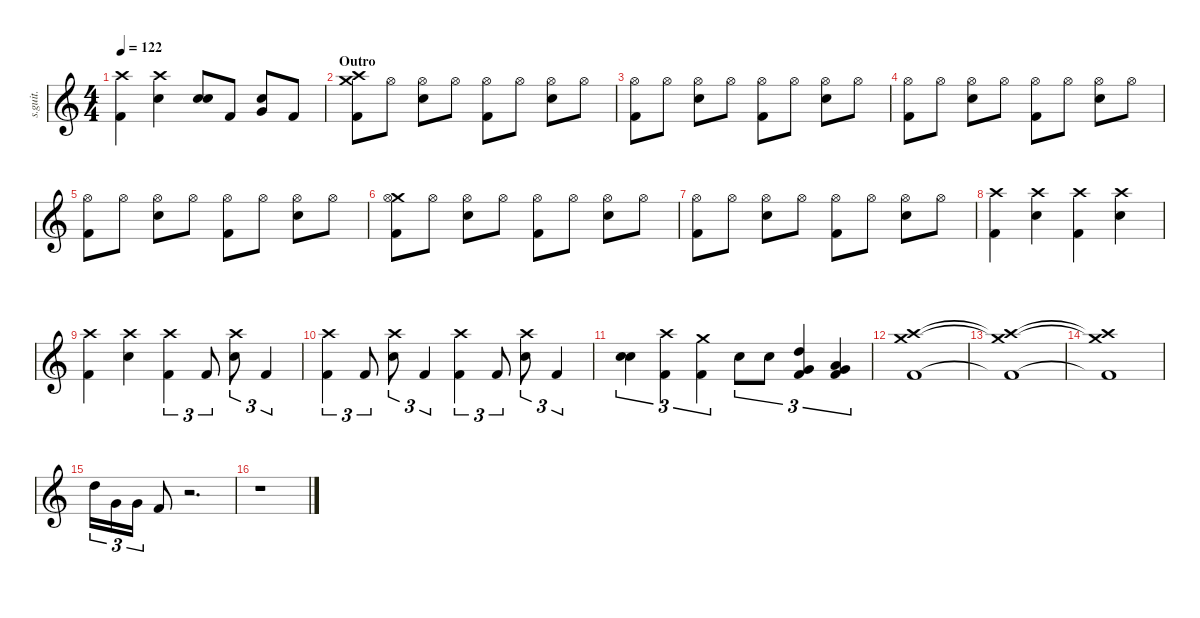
\defaultSystemsLayout 4
\hideDynamics
\bracketExtendMode nobrackets
\track ("Neil Sanderson" "s.guit.") {instrument percussion}
\staff {score}
\articulation defaults
\ts (4 4)
\tempo 122
\clef g2
\ks c
("Crash high (hit)" "Kick (hit) 2").4{lyrics (0 "") lyrics (1 "") lyrics (2 "") lyrics (3 "") lyrics (4 "") dy f} ("Crash high (hit)" "Snare (hit) 2").4{lyrics (0 "") lyrics (1 "") lyrics (2 "") lyrics (3 "") lyrics (4 "")} ("Snare (hit) 2" "Snare (hit) 2").8{bd 30 lyrics (0 "") lyrics (1 "") lyrics (2 "") lyrics (3 "") lyrics (4 "")} "Kick (hit) 2".8{lyrics (0 "") lyrics (1 "") lyrics (2 "") lyrics (3 "") lyrics (4 "")} ("Snare (hit) 2" "Very Low Tom (hit)").8{bd 30 lyrics (0 "") lyrics (1 "") lyrics (2 "") lyrics (3 "") lyrics (4 "")} "Kick (hit) 2".8{lyrics (0 "") lyrics (1 "") lyrics (2 "") lyrics (3 "") lyrics (4 "")} |
\section ("" "Outro")
("Crash high (hit)" "Crash medium (hit)" "Kick (hit) 2").8{lyrics (0 "") lyrics (1 "") lyrics (2 "") lyrics (3 "") lyrics (4 "")} "Hi-Hat (open)".8{lyrics (0 "") lyrics (1 "") lyrics (2 "") lyrics (3 "") lyrics (4 "")} ("Hi-Hat (open)" "Snare (hit) 2").8{lyrics (0 "") lyrics (1 "") lyrics (2 "") lyrics (3 "") lyrics (4 "")} "Hi-Hat (open)".8{lyrics (0 "") lyrics (1 "") lyrics (2 "") lyrics (3 "") lyrics (4 "")} ("Hi-Hat (open)" "Kick (hit) 2").8{lyrics (0 "") lyrics (1 "") lyrics (2 "") lyrics (3 "") lyrics (4 "")} "Hi-Hat (open)".8{lyrics (0 "") lyrics (1 "") lyrics (2 "") lyrics (3 "") lyrics (4 "")} ("Hi-Hat (open)" "Snare (hit) 2").8{lyrics (0 "") lyrics (1 "") lyrics (2 "") lyrics (3 "") lyrics (4 "")} "Hi-Hat (open)".8{lyrics (0 "") lyrics (1 "") lyrics (2 "") lyrics (3 "") lyrics (4 "")} |
("Hi-Hat (open)" "Kick (hit) 2").8{lyrics (0 "") lyrics (1 "") lyrics (2 "") lyrics (3 "") lyrics (4 "")} "Hi-Hat (open)".8{lyrics (0 "") lyrics (1 "") lyrics (2 "") lyrics (3 "") lyrics (4 "")} ("Hi-Hat (open)" "Snare (hit) 2").8{lyrics (0 "") lyrics (1 "") lyrics (2 "") lyrics (3 "") lyrics (4 "")} "Hi-Hat (open)".8{lyrics (0 "") lyrics (1 "") lyrics (2 "") lyrics (3 "") lyrics (4 "")} ("Hi-Hat (open)" "Kick (hit) 2").8{lyrics (0 "") lyrics (1 "") lyrics (2 "") lyrics (3 "") lyrics (4 "")} "Hi-Hat (open)".8{lyrics (0 "") lyrics (1 "") lyrics (2 "") lyrics (3 "") lyrics (4 "")} ("Hi-Hat (open)" "Snare (hit) 2").8{lyrics (0 "") lyrics (1 "") lyrics (2 "") lyrics (3 "") lyrics (4 "")} "Hi-Hat (open)".8{lyrics (0 "") lyrics (1 "") lyrics (2 "") lyrics (3 "") lyrics (4 "")} |
("Hi-Hat (open)" "Kick (hit) 2").8{lyrics (0 "") lyrics (1 "") lyrics (2 "") lyrics (3 "") lyrics (4 "")} "Hi-Hat (open)".8{lyrics (0 "") lyrics (1 "") lyrics (2 "") lyrics (3 "") lyrics (4 "")} ("Hi-Hat (open)" "Snare (hit) 2").8{lyrics (0 "") lyrics (1 "") lyrics (2 "") lyrics (3 "") lyrics (4 "")} "Hi-Hat (open)".8{lyrics (0 "") lyrics (1 "") lyrics (2 "") lyrics (3 "") lyrics (4 "")} ("Hi-Hat (open)" "Kick (hit) 2").8{lyrics (0 "") lyrics (1 "") lyrics (2 "") lyrics (3 "") lyrics (4 "")} "Hi-Hat (open)".8{lyrics (0 "") lyrics (1 "") lyrics (2 "") lyrics (3 "") lyrics (4 "")} ("Hi-Hat (open)" "Snare (hit) 2").8{lyrics (0 "") lyrics (1 "") lyrics (2 "") lyrics (3 "") lyrics (4 "")} "Hi-Hat (open)".8{lyrics (0 "") lyrics (1 "") lyrics (2 "") lyrics (3 "") lyrics (4 "")} |
("Hi-Hat (open)" "Kick (hit) 2").8{lyrics (0 "") lyrics (1 "") lyrics (2 "") lyrics (3 "") lyrics (4 "")} "Hi-Hat (open)".8{lyrics (0 "") lyrics (1 "") lyrics (2 "") lyrics (3 "") lyrics (4 "")} ("Hi-Hat (open)" "Snare (hit) 2").8{lyrics (0 "") lyrics (1 "") lyrics (2 "") lyrics (3 "") lyrics (4 "")} "Hi-Hat (open)".8{lyrics (0 "") lyrics (1 "") lyrics (2 "") lyrics (3 "") lyrics (4 "")} ("Hi-Hat (open)" "Kick (hit) 2").8{lyrics (0 "") lyrics (1 "") lyrics (2 "") lyrics (3 "") lyrics (4 "")} "Hi-Hat (open)".8{lyrics (0 "") lyrics (1 "") lyrics (2 "") lyrics (3 "") lyrics (4 "")} ("Hi-Hat (open)" "Snare (hit) 2").8{lyrics (0 "") lyrics (1 "") lyrics (2 "") lyrics (3 "") lyrics (4 "")} "Hi-Hat (open)".8{lyrics (0 "") lyrics (1 "") lyrics (2 "") lyrics (3 "") lyrics (4 "")} |
("Crash medium (hit)" "Hi-Hat (open)" "Kick (hit) 2").8{lyrics (0 "") lyrics (1 "") lyrics (2 "") lyrics (3 "") lyrics (4 "")} "Hi-Hat (open)".8{lyrics (0 "") lyrics (1 "") lyrics (2 "") lyrics (3 "") lyrics (4 "")} ("Hi-Hat (open)" "Snare (hit) 2").8{lyrics (0 "") lyrics (1 "") lyrics (2 "") lyrics (3 "") lyrics (4 "")} "Hi-Hat (open)".8{lyrics (0 "") lyrics (1 "") lyrics (2 "") lyrics (3 "") lyrics (4 "")} ("Hi-Hat (open)" "Kick (hit) 2").8{lyrics (0 "") lyrics (1 "") lyrics (2 "") lyrics (3 "") lyrics (4 "")} "Hi-Hat (open)".8{lyrics (0 "") lyrics (1 "") lyrics (2 "") lyrics (3 "") lyrics (4 "")} ("Hi-Hat (open)" "Snare (hit) 2").8{lyrics (0 "") lyrics (1 "") lyrics (2 "") lyrics (3 "") lyrics (4 "")} "Hi-Hat (open)".8{lyrics (0 "") lyrics (1 "") lyrics (2 "") lyrics (3 "") lyrics (4 "")} |
("Hi-Hat (open)" "Kick (hit) 2").8{lyrics (0 "") lyrics (1 "") lyrics (2 "") lyrics (3 "") lyrics (4 "")} "Hi-Hat (open)".8{lyrics (0 "") lyrics (1 "") lyrics (2 "") lyrics (3 "") lyrics (4 "")} ("Hi-Hat (open)" "Snare (hit) 2").8{lyrics (0 "") lyrics (1 "") lyrics (2 "") lyrics (3 "") lyrics (4 "")} "Hi-Hat (open)".8{lyrics (0 "") lyrics (1 "") lyrics (2 "") lyrics (3 "") lyrics (4 "")} ("Hi-Hat (open)" "Kick (hit) 2").8{lyrics (0 "") lyrics (1 "") lyrics (2 "") lyrics (3 "") lyrics (4 "")} "Hi-Hat (open)".8{lyrics (0 "") lyrics (1 "") lyrics (2 "") lyrics (3 "") lyrics (4 "")} ("Hi-Hat (open)" "Snare (hit) 2").8{lyrics (0 "") lyrics (1 "") lyrics (2 "") lyrics (3 "") lyrics (4 "")} "Hi-Hat (open)".8{lyrics (0 "") lyrics (1 "") lyrics (2 "") lyrics (3 "") lyrics (4 "")} |
("Crash high (hit)" "Kick (hit) 2").4{lyrics (0 "") lyrics (1 "") lyrics (2 "") lyrics (3 "") lyrics (4 "")} ("Crash high (hit)" "Snare (hit) 2").4{lyrics (0 "") lyrics (1 "") lyrics (2 "") lyrics (3 "") lyrics (4 "")} ("Crash high (hit)" "Kick (hit) 2").4{lyrics (0 "") lyrics (1 "") lyrics (2 "") lyrics (3 "") lyrics (4 "")} ("Crash high (hit)" "Snare (hit) 2").4{lyrics (0 "") lyrics (1 "") lyrics (2 "") lyrics (3 "") lyrics (4 "")} |
("Crash high (hit)" "Kick (hit) 2").4{lyrics (0 "") lyrics (1 "") lyrics (2 "") lyrics (3 "") lyrics (4 "")} ("Crash high (hit)" "Snare (hit) 2").4{lyrics (0 "") lyrics (1 "") lyrics (2 "") lyrics (3 "") lyrics (4 "")} ("Crash high (hit)" "Kick (hit) 2").4{tu (3 2) lyrics (0 "") lyrics (1 "") lyrics (2 "") lyrics (3 "") lyrics (4 "")} "Kick (hit) 2".8{tu (3 2) lyrics (0 "") lyrics (1 "") lyrics (2 "") lyrics (3 "") lyrics (4 "")} ("Crash high (hit)" "Snare (hit) 2").8{tu (3 2) lyrics (0 "") lyrics (1 "") lyrics (2 "") lyrics (3 "") lyrics (4 "")} "Kick (hit) 2".4{tu (3 2) lyrics (0 "") lyrics (1 "") lyrics (2 "") lyrics (3 "") lyrics (4 "")} |
("Crash high (hit)" "Kick (hit) 2").4{tu (3 2) lyrics (0 "") lyrics (1 "") lyrics (2 "") lyrics (3 "") lyrics (4 "")} "Kick (hit) 2".8{tu (3 2) lyrics (0 "") lyrics (1 "") lyrics (2 "") lyrics (3 "") lyrics (4 "")} ("Crash high (hit)" "Snare (hit) 2").8{tu (3 2) lyrics (0 "") lyrics (1 "") lyrics (2 "") lyrics (3 "") lyrics (4 "")} "Kick (hit) 2".4{tu (3 2) lyrics (0 "") lyrics (1 "") lyrics (2 "") lyrics (3 "") lyrics (4 "")} ("Crash high (hit)" "Kick (hit) 2").4{tu (3 2) lyrics (0 "") lyrics (1 "") lyrics (2 "") lyrics (3 "") lyrics (4 "")} "Kick (hit) 2".8{tu (3 2) lyrics (0 "") lyrics (1 "") lyrics (2 "") lyrics (3 "") lyrics (4 "")} ("Crash high (hit)" "Snare (hit) 2").8{tu (3 2) lyrics (0 "") lyrics (1 "") lyrics (2 "") lyrics (3 "") lyrics (4 "")} "Kick (hit) 2".4{tu (3 2) lyrics (0 "") lyrics (1 "") lyrics (2 "") lyrics (3 "") lyrics (4 "")} |
("Snare (hit) 2" "Snare (hit) 2").4{tu (3 2) bd 30 lyrics (0 "") lyrics (1 "") lyrics (2 "") lyrics (3 "") lyrics (4 "")} ("Crash high (hit)" "Kick (hit) 2").4{tu (3 2) lyrics (0 "") lyrics (1 "") lyrics (2 "") lyrics (3 "") lyrics (4 "")} ("Crash medium (hit)" "Kick (hit) 2").4{tu (3 2) lyrics (0 "") lyrics (1 "") lyrics (2 "") lyrics (3 "") lyrics (4 "")} "Snare (hit) 2".8{tu (3 2) lyrics (0 "") lyrics (1 "") lyrics (2 "") lyrics (3 "") lyrics (4 "")} "Snare (hit) 2".8{tu (3 2) lyrics (0 "") lyrics (1 "") lyrics (2 "") lyrics (3 "") lyrics (4 "")} ("High Tom (hit)" "Very Low Tom (hit)" "Kick (hit) 2").4{tu (3 2) bd 30 lyrics (0 "") lyrics (1 "") lyrics (2 "") lyrics (3 "") lyrics (4 "")} ("Very Low Tom (hit)" "Low Floor Tom (hit)" "Kick (hit) 2").4{tu (3 2) bd 30 lyrics (0 "") lyrics (1 "") lyrics (2 "") lyrics (3 "") lyrics (4 "")} |
("Crash high (hit)" "Crash medium (hit)" "Kick (hit) 2").1{lyrics (0 "") lyrics (1 "") lyrics (2 "") lyrics (3 "") lyrics (4 "")} |
("Crash high (hit)"{t} "Crash medium (hit)"{t} "Kick (hit) 2"{t}).1{lyrics (0 "") lyrics (1 "") lyrics (2 "") lyrics (3 "") lyrics (4 "")} |
("Crash high (hit)"{t} "Crash medium (hit)"{t} "Kick (hit) 2"{t}).1{lyrics (0 "") lyrics (1 "") lyrics (2 "") lyrics (3 "") lyrics (4 "")} |
"High Tom (hit)".16{tu (3 2) lyrics (0 "") lyrics (1 "") lyrics (2 "") lyrics (3 "") lyrics (4 "")} "Very Low Tom (hit)".16{tu (3 2) lyrics (0 "") lyrics (1 "") lyrics (2 "") lyrics (3 "") lyrics (4 "")} "Very Low Tom (hit)".16{tu (3 2) lyrics (0 "") lyrics (1 "") lyrics (2 "") lyrics (3 "") lyrics (4 "")} "Kick (hit) 2".8{lyrics (0 "") lyrics (1 "") lyrics (2 "") lyrics (3 "") lyrics (4 "")} r.2{d} |
r.1
